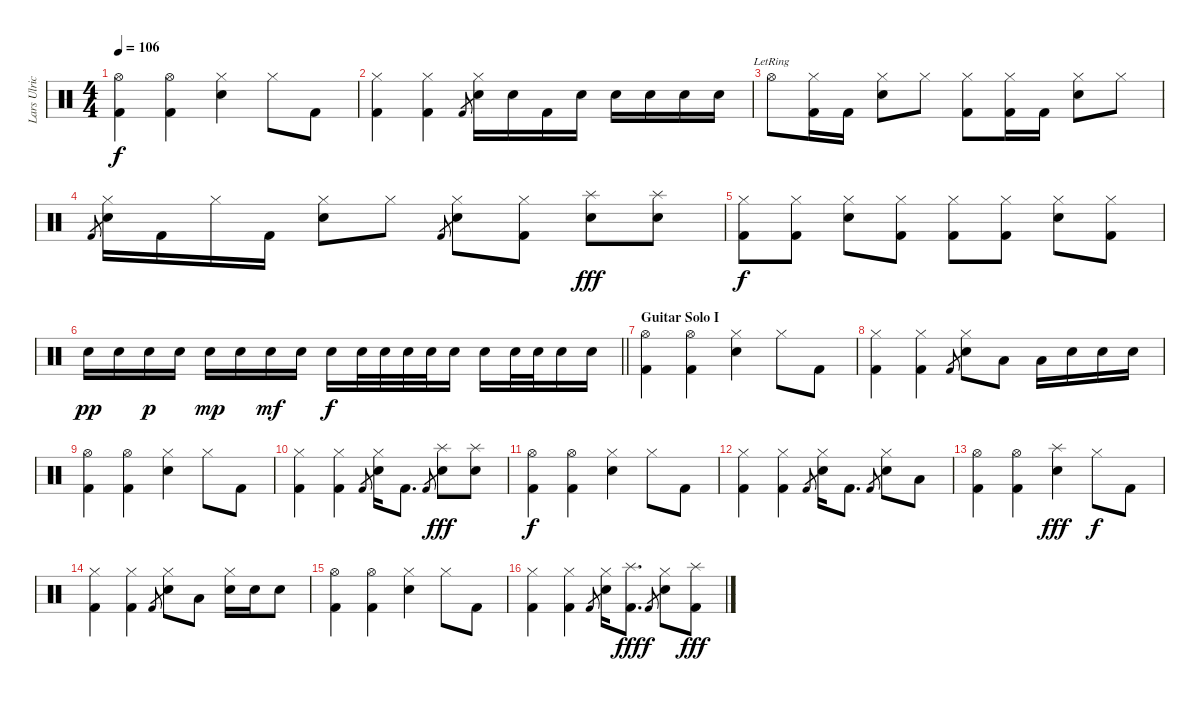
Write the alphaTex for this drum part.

\track ("Lars Ulrich [Drums]" "Lars Ulric") {instrument percussion}
\staff {score}
\articulation defaults
\ts (4 4)
\tempo 106
\clef neutral
\ks c
("Hi-Hat (open)" "Kick (hit) 2").4{dy f} ("Hi-Hat (open)" "Kick (hit) 2").4 ("Hi-Hat (closed)" "Electric Snare (hit)").4 "Hi-Hat (closed)".8 "Kick (hit) 2".8 |
("Hi-Hat (closed)" "Kick (hit) 2").4 ("Hi-Hat (closed)" "Kick (hit) 2").4 "Kick (hit) 2".8{gr} ("Hi-Hat (closed)" "Electric Snare (hit)").16 "Electric Snare (hit)".16 "Kick (hit) 2".16 "Electric Snare (hit)".16 "Electric Snare (hit)".16 "Electric Snare (hit)".16 "Electric Snare (hit)".16 "Electric Snare (hit)".16 |
"Hi-Hat (open)"{lr}.8 ("Hi-Hat (closed)" "Kick (hit) 2").16 "Kick (hit) 2".16 ("Hi-Hat (closed)" "Electric Snare (hit)").8 "Hi-Hat (closed)".8 ("Hi-Hat (closed)" "Kick (hit) 2").8 ("Hi-Hat (closed)" "Kick (hit) 2").16 "Kick (hit) 2".16 ("Hi-Hat (closed)" "Electric Snare (hit)").8 "Hi-Hat (closed)".8 |
"Kick (hit) 2".8{gr} ("Hi-Hat (closed)" "Electric Snare (hit)").16 "Kick (hit) 2".16 "Hi-Hat (closed)".16 "Kick (hit) 2".16 ("Hi-Hat (closed)" "Electric Snare (hit)").8 "Hi-Hat (closed)".8 "Kick (hit) 2".8{gr} ("Hi-Hat (closed)" "Electric Snare (hit)").8 ("Hi-Hat (closed)" "Kick (hit) 2").8 ("Splash (hit)" "Electric Snare (hit)").8{dy fff} ("Splash (hit)" "Electric Snare (hit)").8 |
("Hi-Hat (closed)" "Kick (hit) 2").8{dy f} ("Hi-Hat (closed)" "Kick (hit) 2").8 ("Hi-Hat (closed)" "Electric Snare (hit)").8 ("Hi-Hat (closed)" "Kick (hit) 2").8 ("Hi-Hat (closed)" "Kick (hit) 2").8 ("Hi-Hat (closed)" "Kick (hit) 2").8 ("Hi-Hat (closed)" "Electric Snare (hit)").8 ("Hi-Hat (closed)" "Kick (hit) 2").8 |
\barLineRight lightlight "Electric Snare (hit)".16{dy pp} "Electric Snare (hit)".16 "Electric Snare (hit)".16{dy p} "Electric Snare (hit)".16 "Electric Snare (hit)".16{dy mp} "Electric Snare (hit)".16 "Electric Snare (hit)".16{dy mf} "Electric Snare (hit)".16 "Electric Snare (hit)".16{dy f} "Electric Snare (hit)".32 "Electric Snare (hit)".32 "Electric Snare (hit)".32 "Electric Snare (hit)".32 "Electric Snare (hit)".16 "Electric Snare (hit)".16 "Electric Snare (hit)".32 "Electric Snare (hit)".32 "Electric Snare (hit)".16 "Electric Snare (hit)".16
|
\section ("" "Guitar Solo I")
("Hi-Hat (open)" "Kick (hit) 2").4 ("Hi-Hat (open)" "Kick (hit) 2").4 ("Hi-Hat (closed)" "Electric Snare (hit)").4 "Hi-Hat (closed)".8 "Kick (hit) 2".8 |
("Hi-Hat (closed)" "Kick (hit) 2").4 ("Hi-Hat (closed)" "Kick (hit) 2").4 "Kick (hit) 2".8{gr} ("Hi-Hat (closed)" "Electric Snare (hit)").8 "Low Tom (hit)".8 "Low Tom (hit)".16 "Electric Snare (hit)".16 "Electric Snare (hit)".16 "Electric Snare (hit)".16 |
("Hi-Hat (open)" "Kick (hit) 2").4 ("Hi-Hat (open)" "Kick (hit) 2").4 ("Hi-Hat (closed)" "Electric Snare (hit)").4 "Hi-Hat (closed)".8 "Kick (hit) 2".8 |
("Hi-Hat (closed)" "Kick (hit) 2").4 ("Hi-Hat (closed)" "Kick (hit) 2").4 "Kick (hit) 2".8{gr} ("Hi-Hat (closed)" "Electric Snare (hit)").16 "Kick (hit) 2".8{d} "Kick (hit) 2".8{gr} ("Splash (hit)" "Electric Snare (hit)").8{dy fff} ("Splash (hit)" "Electric Snare (hit)").8 |
("Hi-Hat (open)" "Kick (hit) 2").4{dy f} ("Hi-Hat (open)" "Kick (hit) 2").4 ("Hi-Hat (closed)" "Electric Snare (hit)").4 "Hi-Hat (closed)".8 "Kick (hit) 2".8 |
("Hi-Hat (closed)" "Kick (hit) 2").4 ("Hi-Hat (closed)" "Kick (hit) 2").4 "Kick (hit) 2".8{gr} ("Hi-Hat (closed)" "Electric Snare (hit)").16 "Kick (hit) 2".8{d} "Kick (hit) 2".8{gr} ("Hi-Hat (closed)" "Electric Snare (hit)").8 "Low Tom (hit)".8 |
("Hi-Hat (open)" "Kick (hit) 2").4 ("Hi-Hat (open)" "Kick (hit) 2").4 ("Splash (hit)" "Electric Snare (hit)").4{dy fff} "Hi-Hat (closed)".8{dy f} "Kick (hit) 2".8 |
("Hi-Hat (closed)" "Kick (hit) 2").4 ("Hi-Hat (closed)" "Kick (hit) 2").4 "Kick (hit) 2".8{gr} ("Hi-Hat (closed)" "Electric Snare (hit)").8 "Low Tom (hit)".8 ("Hi-Hat (closed)" "Electric Snare (hit)").16 "Electric Snare (hit)".16 "Electric Snare (hit)".8 |
("Hi-Hat (open)" "Kick (hit) 2").4 ("Hi-Hat (open)" "Kick (hit) 2").4 ("Hi-Hat (closed)" "Electric Snare (hit)").4 "Hi-Hat (closed)".8 "Kick (hit) 2".8 |
("Hi-Hat (closed)" "Kick (hit) 2").4 ("Hi-Hat (closed)" "Kick (hit) 2").4 "Kick (hit) 2".8{gr} ("Hi-Hat (closed)" "Electric Snare (hit)").16 ("Splash (hit)" "Kick (hit) 2").8{d dy fff} "Kick (hit) 2".8{gr dy f} ("Hi-Hat (closed)" "Electric Snare (hit)").8 ("Splash (hit)" "Kick (hit) 2").8{dy fff}
